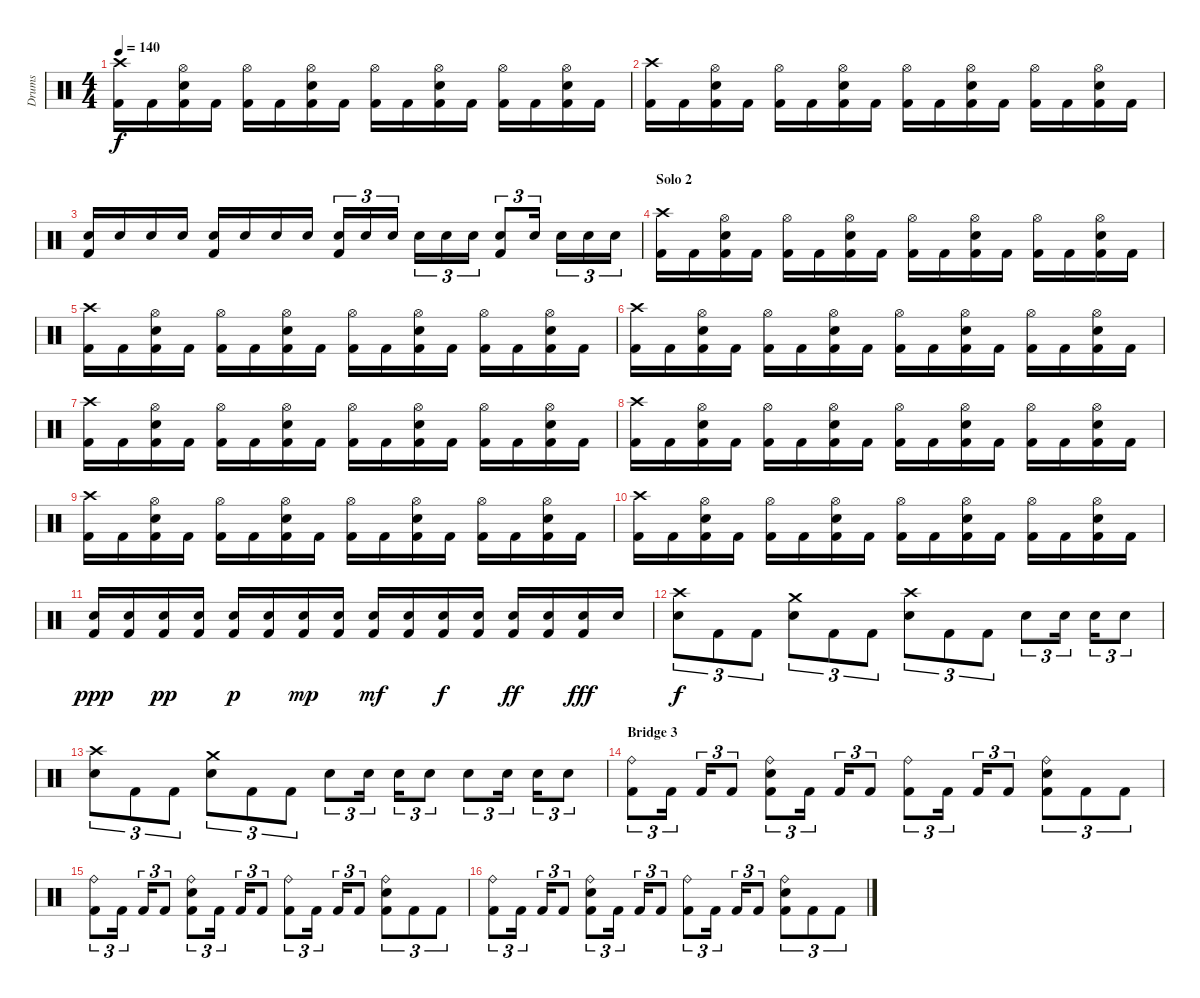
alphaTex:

\track ("Drums" "Drums") {instrument percussion}
\staff {score}
\articulation defaults
\ts (4 4)
\tempo 140
\clef neutral
\ks c
("Crash high (hit)" "Kick (hit) 2").16{dy f} "Kick (hit) 2".16 ("Hi-Hat (open)" "Electric Snare (hit)" "Kick (hit) 2").16 "Kick (hit) 2".16 ("Hi-Hat (open)" "Kick (hit) 2").16 "Kick (hit) 2".16 ("Hi-Hat (open)" "Electric Snare (hit)" "Kick (hit) 2").16 "Kick (hit) 2".16 ("Hi-Hat (open)" "Kick (hit) 2").16 "Kick (hit) 2".16 ("Hi-Hat (open)" "Electric Snare (hit)" "Kick (hit) 2").16 "Kick (hit) 2".16 ("Hi-Hat (open)" "Kick (hit) 2").16 "Kick (hit) 2".16 ("Hi-Hat (open)" "Electric Snare (hit)" "Kick (hit) 2").16 "Kick (hit) 2".16 |
("Crash high (hit)" "Kick (hit) 2").16 "Kick (hit) 2".16 ("Hi-Hat (open)" "Electric Snare (hit)" "Kick (hit) 2").16 "Kick (hit) 2".16 ("Hi-Hat (open)" "Kick (hit) 2").16 "Kick (hit) 2".16 ("Hi-Hat (open)" "Electric Snare (hit)" "Kick (hit) 2").16 "Kick (hit) 2".16 ("Hi-Hat (open)" "Kick (hit) 2").16 "Kick (hit) 2".16 ("Hi-Hat (open)" "Electric Snare (hit)" "Kick (hit) 2").16 "Kick (hit) 2".16 ("Hi-Hat (open)" "Kick (hit) 2").16 "Kick (hit) 2".16 ("Hi-Hat (open)" "Electric Snare (hit)" "Kick (hit) 2").16 "Kick (hit) 2".16 |
("Electric Snare (hit)" "Kick (hit) 2").16 "Electric Snare (hit)".16 "Electric Snare (hit)".16 "Electric Snare (hit)".16 ("Electric Snare (hit)" "Kick (hit) 2").16 "Electric Snare (hit)".16 "Electric Snare (hit)".16 "Electric Snare (hit)".16 ("Electric Snare (hit)" "Kick (hit) 2").16{tu (3 2)} "Electric Snare (hit)".16{tu (3 2)} "Electric Snare (hit)".16{tu (3 2)} "Electric Snare (hit)".16{tu (3 2)} "Electric Snare (hit)".16{tu (3 2)} "Electric Snare (hit)".16{tu (3 2)} ("Electric Snare (hit)" "Kick (hit) 2").8{tu (3 2)} "Electric Snare (hit)".16{tu (3 2)} "Electric Snare (hit)".16{tu (3 2)} "Electric Snare (hit)".16{tu (3 2)} "Electric Snare (hit)".16{tu (3 2)} |
\section ("" "Solo 2")
("Crash high (hit)" "Kick (hit) 2").16 "Kick (hit) 2".16 ("Hi-Hat (open)" "Electric Snare (hit)" "Kick (hit) 2").16 "Kick (hit) 2".16 ("Hi-Hat (open)" "Kick (hit) 2").16 "Kick (hit) 2".16 ("Hi-Hat (open)" "Electric Snare (hit)" "Kick (hit) 2").16 "Kick (hit) 2".16 ("Hi-Hat (open)" "Kick (hit) 2").16 "Kick (hit) 2".16 ("Hi-Hat (open)" "Electric Snare (hit)" "Kick (hit) 2").16 "Kick (hit) 2".16 ("Hi-Hat (open)" "Kick (hit) 2").16 "Kick (hit) 2".16 ("Hi-Hat (open)" "Electric Snare (hit)" "Kick (hit) 2").16 "Kick (hit) 2".16 |
("Crash high (hit)" "Kick (hit) 2").16 "Kick (hit) 2".16 ("Hi-Hat (open)" "Electric Snare (hit)" "Kick (hit) 2").16 "Kick (hit) 2".16 ("Hi-Hat (open)" "Kick (hit) 2").16 "Kick (hit) 2".16 ("Hi-Hat (open)" "Electric Snare (hit)" "Kick (hit) 2").16 "Kick (hit) 2".16 ("Hi-Hat (open)" "Kick (hit) 2").16 "Kick (hit) 2".16 ("Hi-Hat (open)" "Electric Snare (hit)" "Kick (hit) 2").16 "Kick (hit) 2".16 ("Hi-Hat (open)" "Kick (hit) 2").16 "Kick (hit) 2".16 ("Hi-Hat (open)" "Electric Snare (hit)" "Kick (hit) 2").16 "Kick (hit) 2".16 |
("Crash high (hit)" "Kick (hit) 2").16 "Kick (hit) 2".16 ("Hi-Hat (open)" "Electric Snare (hit)" "Kick (hit) 2").16 "Kick (hit) 2".16 ("Hi-Hat (open)" "Kick (hit) 2").16 "Kick (hit) 2".16 ("Hi-Hat (open)" "Electric Snare (hit)" "Kick (hit) 2").16 "Kick (hit) 2".16 ("Hi-Hat (open)" "Kick (hit) 2").16 "Kick (hit) 2".16 ("Hi-Hat (open)" "Electric Snare (hit)" "Kick (hit) 2").16 "Kick (hit) 2".16 ("Hi-Hat (open)" "Kick (hit) 2").16 "Kick (hit) 2".16 ("Hi-Hat (open)" "Electric Snare (hit)" "Kick (hit) 2").16 "Kick (hit) 2".16 |
("Crash high (hit)" "Kick (hit) 2").16 "Kick (hit) 2".16 ("Hi-Hat (open)" "Electric Snare (hit)" "Kick (hit) 2").16 "Kick (hit) 2".16 ("Hi-Hat (open)" "Kick (hit) 2").16 "Kick (hit) 2".16 ("Hi-Hat (open)" "Electric Snare (hit)" "Kick (hit) 2").16 "Kick (hit) 2".16 ("Hi-Hat (open)" "Kick (hit) 2").16 "Kick (hit) 2".16 ("Hi-Hat (open)" "Electric Snare (hit)" "Kick (hit) 2").16 "Kick (hit) 2".16 ("Hi-Hat (open)" "Kick (hit) 2").16 "Kick (hit) 2".16 ("Hi-Hat (open)" "Electric Snare (hit)" "Kick (hit) 2").16 "Kick (hit) 2".16 |
("Crash high (hit)" "Kick (hit) 2").16 "Kick (hit) 2".16 ("Hi-Hat (open)" "Electric Snare (hit)" "Kick (hit) 2").16 "Kick (hit) 2".16 ("Hi-Hat (open)" "Kick (hit) 2").16 "Kick (hit) 2".16 ("Hi-Hat (open)" "Electric Snare (hit)" "Kick (hit) 2").16 "Kick (hit) 2".16 ("Hi-Hat (open)" "Kick (hit) 2").16 "Kick (hit) 2".16 ("Hi-Hat (open)" "Electric Snare (hit)" "Kick (hit) 2").16 "Kick (hit) 2".16 ("Hi-Hat (open)" "Kick (hit) 2").16 "Kick (hit) 2".16 ("Hi-Hat (open)" "Electric Snare (hit)" "Kick (hit) 2").16 "Kick (hit) 2".16 |
("Crash high (hit)" "Kick (hit) 2").16 "Kick (hit) 2".16 ("Hi-Hat (open)" "Electric Snare (hit)" "Kick (hit) 2").16 "Kick (hit) 2".16 ("Hi-Hat (open)" "Kick (hit) 2").16 "Kick (hit) 2".16 ("Hi-Hat (open)" "Electric Snare (hit)" "Kick (hit) 2").16 "Kick (hit) 2".16 ("Hi-Hat (open)" "Kick (hit) 2").16 "Kick (hit) 2".16 ("Hi-Hat (open)" "Electric Snare (hit)" "Kick (hit) 2").16 "Kick (hit) 2".16 ("Hi-Hat (open)" "Kick (hit) 2").16 "Kick (hit) 2".16 ("Hi-Hat (open)" "Electric Snare (hit)" "Kick (hit) 2").16 "Kick (hit) 2".16 |
("Crash high (hit)" "Kick (hit) 2").16 "Kick (hit) 2".16 ("Hi-Hat (open)" "Electric Snare (hit)" "Kick (hit) 2").16 "Kick (hit) 2".16 ("Hi-Hat (open)" "Kick (hit) 2").16 "Kick (hit) 2".16 ("Hi-Hat (open)" "Electric Snare (hit)" "Kick (hit) 2").16 "Kick (hit) 2".16 ("Hi-Hat (open)" "Kick (hit) 2").16 "Kick (hit) 2".16 ("Hi-Hat (open)" "Electric Snare (hit)" "Kick (hit) 2").16 "Kick (hit) 2".16 ("Hi-Hat (open)" "Kick (hit) 2").16 "Kick (hit) 2".16 ("Hi-Hat (open)" "Electric Snare (hit)" "Kick (hit) 2").16 "Kick (hit) 2".16 |
("Electric Snare (hit)" "Kick (hit) 2").16{dy ppp} ("Electric Snare (hit)" "Kick (hit) 2").16 ("Electric Snare (hit)" "Kick (hit) 2").16{dy pp} ("Electric Snare (hit)" "Kick (hit) 2").16 ("Electric Snare (hit)" "Kick (hit) 2").16{dy p} ("Electric Snare (hit)" "Kick (hit) 2").16 ("Electric Snare (hit)" "Kick (hit) 2").16{dy mp} ("Electric Snare (hit)" "Kick (hit) 2").16 ("Electric Snare (hit)" "Kick (hit) 2").16{dy mf} ("Electric Snare (hit)" "Kick (hit) 2").16 ("Electric Snare (hit)" "Kick (hit) 2").16{dy f} ("Electric Snare (hit)" "Kick (hit) 2").16 ("Electric Snare (hit)" "Kick (hit) 2").16{dy ff} ("Electric Snare (hit)" "Kick (hit) 2").16 ("Electric Snare (hit)" "Kick (hit) 2").16{dy fff} "Electric Snare (hit)".16 |
\section ("" "")
("Crash high (hit)" "Electric Snare (hit)").8{tu (3 2) dy f} "Kick (hit) 2".8{tu (3 2)} "Kick (hit) 2".8{tu (3 2)} ("Crash medium (hit)" "Electric Snare (hit)").8{tu (3 2)} "Kick (hit) 2".8{tu (3 2)} "Kick (hit) 2".8{tu (3 2)} ("Crash high (hit)" "Electric Snare (hit)").8{tu (3 2)} "Kick (hit) 2".8{tu (3 2)} "Kick (hit) 2".8{tu (3 2)} "Electric Snare (hit)".8{tu (3 2)} "Electric Snare (hit)".16{tu (3 2)} "Electric Snare (hit)".16{tu (3 2)} "Electric Snare (hit)".8{tu (3 2)} |
("Crash high (hit)" "Electric Snare (hit)").8{tu (3 2)} "Kick (hit) 2".8{tu (3 2)} "Kick (hit) 2".8{tu (3 2)} ("Crash medium (hit)" "Electric Snare (hit)").8{tu (3 2)} "Kick (hit) 2".8{tu (3 2)} "Kick (hit) 2".8{tu (3 2)} "Electric Snare (hit)".8{tu (3 2)} "Electric Snare (hit)".16{tu (3 2)} "Electric Snare (hit)".16{tu (3 2)} "Electric Snare (hit)".8{tu (3 2)} "Electric Snare (hit)".8{tu (3 2)} "Electric Snare (hit)".16{tu (3 2)} "Electric Snare (hit)".16{tu (3 2)} "Electric Snare (hit)".8{tu (3 2)} |
\section ("" "Bridge 3")
("Ride (bell)" "Kick (hit) 2").8{tu (3 2)} "Kick (hit) 2".16{tu (3 2)} "Kick (hit) 2".16{tu (3 2)} "Kick (hit) 2".8{tu (3 2)} ("Ride (bell)" "Electric Snare (hit)" "Kick (hit) 2").8{tu (3 2)} "Kick (hit) 2".16{tu (3 2)} "Kick (hit) 2".16{tu (3 2)} "Kick (hit) 2".8{tu (3 2)} ("Ride (bell)" "Kick (hit) 2").8{tu (3 2)} "Kick (hit) 2".16{tu (3 2)} "Kick (hit) 2".16{tu (3 2)} "Kick (hit) 2".8{tu (3 2)} ("Ride (bell)" "Electric Snare (hit)" "Kick (hit) 2").8{tu (3 2)} "Kick (hit) 2".8{tu (3 2)} "Kick (hit) 2".8{tu (3 2)} |
("Ride (bell)" "Kick (hit) 2").8{tu (3 2)} "Kick (hit) 2".16{tu (3 2)} "Kick (hit) 2".16{tu (3 2)} "Kick (hit) 2".8{tu (3 2)} ("Ride (bell)" "Electric Snare (hit)" "Kick (hit) 2").8{tu (3 2)} "Kick (hit) 2".16{tu (3 2)} "Kick (hit) 2".16{tu (3 2)} "Kick (hit) 2".8{tu (3 2)} ("Ride (bell)" "Kick (hit) 2").8{tu (3 2)} "Kick (hit) 2".16{tu (3 2)} "Kick (hit) 2".16{tu (3 2)} "Kick (hit) 2".8{tu (3 2)} ("Ride (bell)" "Electric Snare (hit)" "Kick (hit) 2").8{tu (3 2)} "Kick (hit) 2".8{tu (3 2)} "Kick (hit) 2".8{tu (3 2)} |
("Ride (bell)" "Kick (hit) 2").8{tu (3 2)} "Kick (hit) 2".16{tu (3 2)} "Kick (hit) 2".16{tu (3 2)} "Kick (hit) 2".8{tu (3 2)} ("Ride (bell)" "Electric Snare (hit)" "Kick (hit) 2").8{tu (3 2)} "Kick (hit) 2".16{tu (3 2)} "Kick (hit) 2".16{tu (3 2)} "Kick (hit) 2".8{tu (3 2)} ("Ride (bell)" "Kick (hit) 2").8{tu (3 2)} "Kick (hit) 2".16{tu (3 2)} "Kick (hit) 2".16{tu (3 2)} "Kick (hit) 2".8{tu (3 2)} ("Ride (bell)" "Electric Snare (hit)" "Kick (hit) 2").8{tu (3 2)} "Kick (hit) 2".8{tu (3 2)} "Kick (hit) 2".8{tu (3 2)}
